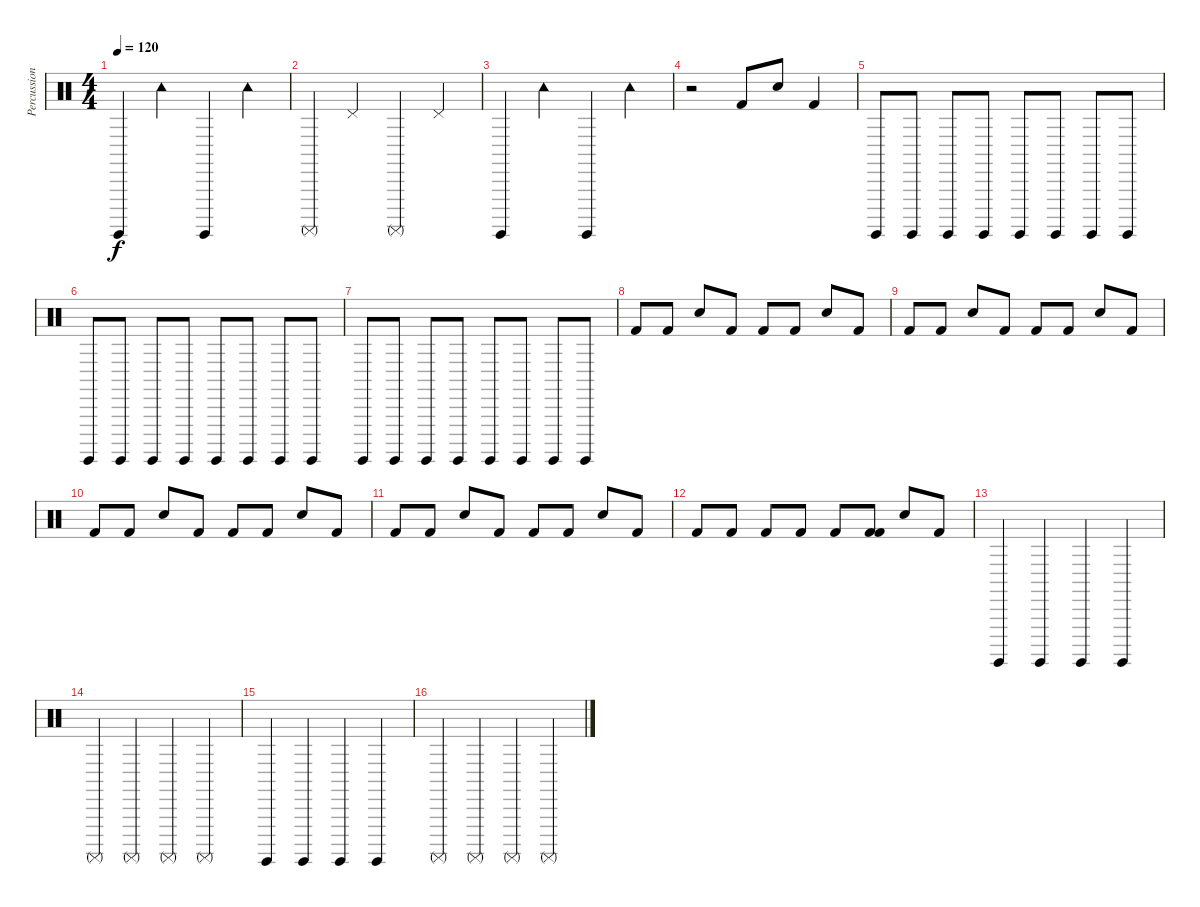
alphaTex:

\track ("Percussion" "Percussion") {instrument percussion}
\staff {score}
\articulation defaults
\ts (4 4)
\tempo 120
\clef neutral
\ks c "Surdo (hit)".4{dy f} "Tambourine (hit)".4 "Surdo (hit)".4 "Tambourine (hit)".4
|
"Surdo (mute)".4 "Pedal Hi-Hat (hit)".4 "Surdo (mute)".4 "Pedal Hi-Hat (hit)".4 |
"Surdo (hit)".4 "Tambourine (hit)".4 "Surdo (hit)".4 "Tambourine (hit)".4 |
r.2 "Kick (hit) 2".8 "Electric Snare (hit)".8 "Kick (hit) 2".4 |
"Surdo (hit)".8 "Surdo (hit)".8 "Surdo (hit)".8 "Surdo (hit)".8 "Surdo (hit)".8 "Surdo (hit)".8 "Surdo (hit)".8 "Surdo (hit)".8 |
"Surdo (hit)".8 "Surdo (hit)".8 "Surdo (hit)".8 "Surdo (hit)".8 "Surdo (hit)".8 "Surdo (hit)".8 "Surdo (hit)".8 "Surdo (hit)".8 |
"Surdo (hit)".8 "Surdo (hit)".8 "Surdo (hit)".8 "Surdo (hit)".8 "Surdo (hit)".8 "Surdo (hit)".8 "Surdo (hit)".8 "Surdo (hit)".8 |
"Kick (hit) 2".8 "Kick (hit) 2".8 "Electric Snare (hit)".8 "Kick (hit) 2".8 "Kick (hit) 2".8 "Kick (hit) 2".8 "Snare (hit) 2".8 "Kick (hit) 2".8 |
"Kick (hit) 2".8 "Kick (hit) 2".8 "Electric Snare (hit)".8 "Kick (hit) 2".8 "Kick (hit) 2".8 "Kick (hit) 2".8 "Snare (hit) 2".8 "Kick (hit) 2".8 |
"Kick (hit) 2".8 "Kick (hit) 2".8 "Electric Snare (hit)".8 "Kick (hit) 2".8 "Kick (hit) 2".8 "Kick (hit) 2".8 "Snare (hit) 2".8 "Kick (hit) 2".8 |
"Kick (hit) 2".8 "Kick (hit) 2".8 "Electric Snare (hit)".8 "Kick (hit) 2".8 "Kick (hit) 2".8 "Kick (hit) 2".8 "Snare (hit) 2".8 "Kick (hit) 2".8 |
"Kick (hit) 2".8 "Kick (hit) 2".8 "Kick (hit) 2".8 "Kick (hit) 2".8 "Kick (hit) 2".8 ("Kick (hit) 2" "Kick (hit) 2").8 "Snare (hit) 2".8 "Kick (hit) 2".8 |
"Surdo (hit)".4 "Surdo (hit)".4 "Surdo (hit)".4 "Surdo (hit)".4 |
"Surdo (mute)".4 "Surdo (mute)".4 "Surdo (mute)".4 "Surdo (mute)".4 |
"Surdo (hit)".4 "Surdo (hit)".4 "Surdo (hit)".4 "Surdo (hit)".4 |
"Surdo (mute)".4 "Surdo (mute)".4 "Surdo (mute)".4 "Surdo (mute)".4
